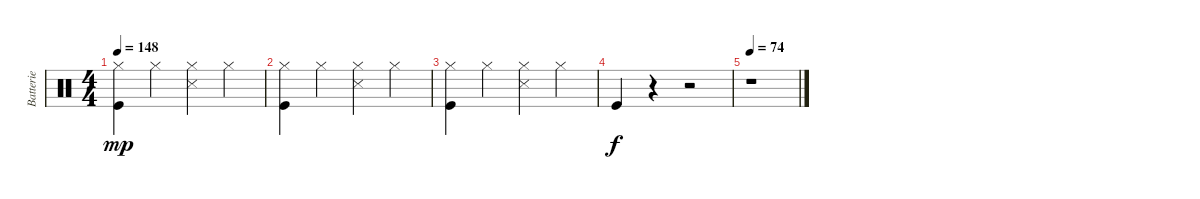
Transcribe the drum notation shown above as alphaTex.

\track ("Batterie" "Batterie") {instrument percussion}
\staff {score}
\articulation defaults
\ts (4 4)
\tempo 148
\clef neutral
\ks c
("Hi-Hat (closed)" "Kick (hit)").4{dy mp} "Hi-Hat (closed)".4 ("Hi-Hat (closed)" "Metronome (hit)").4 "Hi-Hat (closed)".4 |
("Hi-Hat (closed)" "Kick (hit)").4 "Hi-Hat (closed)".4 ("Hi-Hat (closed)" "Metronome (hit)").4 "Hi-Hat (closed)".4 |
("Hi-Hat (closed)" "Kick (hit)").4 "Hi-Hat (closed)".4 ("Hi-Hat (closed)" "Metronome (hit)").4 "Hi-Hat (closed)".4 |
"Kick (hit)".4{dy f} r.4 r.2 |
\tempo 74
r.1
